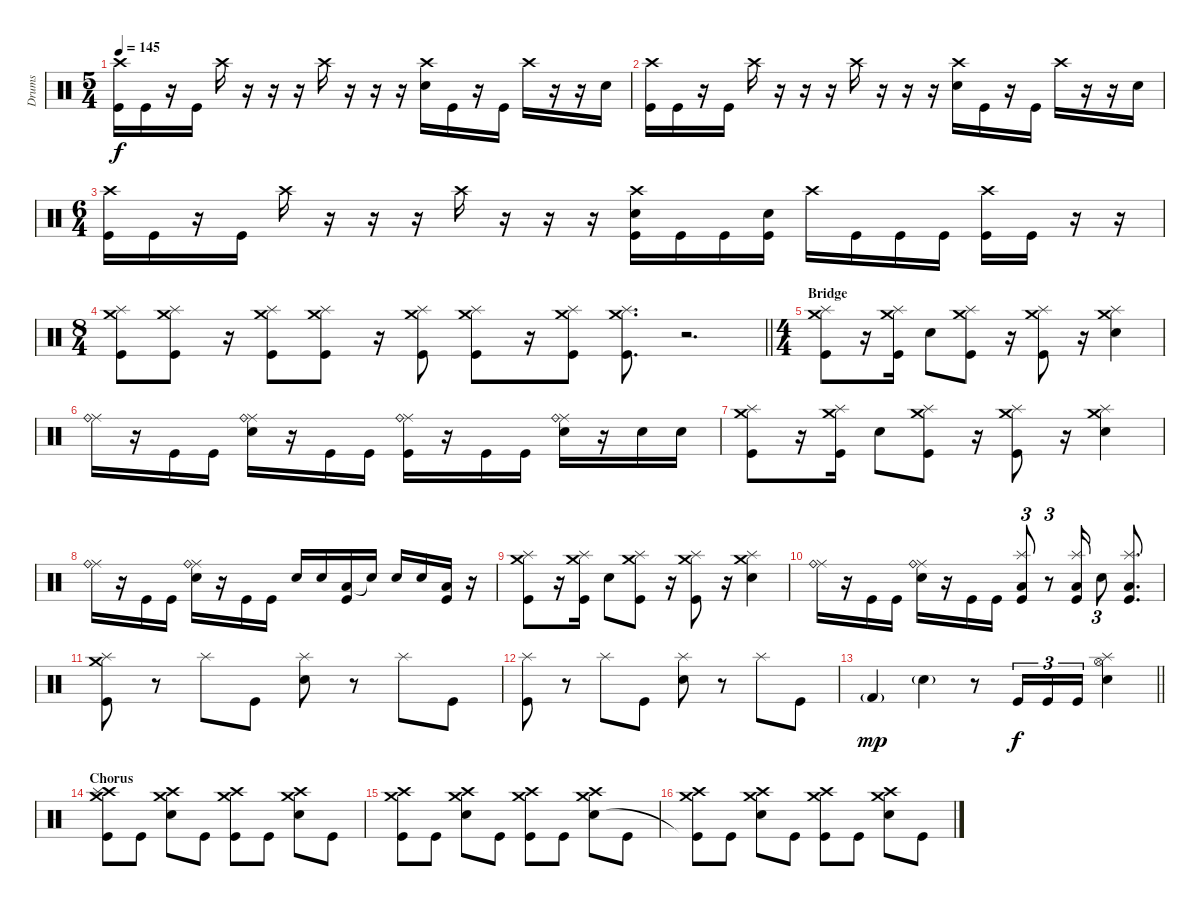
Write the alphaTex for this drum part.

\track ("Drums" "Drums") {instrument percussion}
\staff {score}
\articulation defaults
\ts (5 4)
\tempo 145
\clef neutral
\ks c
("Crash high (hit)" "Kick (hit)").16{dy f} "Kick (hit)".16 r.16 "Kick (hit)".16 "Crash high (hit)".16 r.16 r.16 r.16 "Crash high (hit)".16 r.16 r.16 r.16 ("Crash high (hit)" "Electric Snare (hit)").16 "Kick (hit)".16 r.16 "Kick (hit)".16 "Crash high (hit)".16 r.16 r.16 "Electric Snare (hit)".16 |
("Crash high (hit)" "Kick (hit)").16 "Kick (hit)".16 r.16 "Kick (hit)".16 "Crash high (hit)".16 r.16 r.16 r.16 "Crash high (hit)".16 r.16 r.16 r.16 ("Crash high (hit)" "Electric Snare (hit)").16 "Kick (hit)".16 r.16 "Kick (hit)".16 "Crash high (hit)".16 r.16 r.16 "Electric Snare (hit)".16 |
\ts (6 4)
("Crash high (hit)" "Kick (hit)").16 "Kick (hit)".16 r.16 "Kick (hit)".16 "Crash high (hit)".16 r.16 r.16 r.16 "Crash high (hit)".16 r.16 r.16 r.16 ("Crash high (hit)" "Kick (hit)" "Electric Snare (hit)").16 "Kick (hit)".16 "Kick (hit)".16 ("Kick (hit)" "Electric Snare (hit)").16 "Crash high (hit)".16 "Kick (hit)".16 "Kick (hit)".16 "Kick (hit)".16 ("Crash high (hit)" "Kick (hit)").16 "Kick (hit)".16 r.16 r.16 |
\ts (8 4)
\barLineRight lightlight
("Splash (hit)" "Crash medium (hit)" "Kick (hit)").8 ("Splash (hit)" "Crash medium (hit)" "Kick (hit)").8 r.16 ("Splash (hit)" "Crash medium (hit)" "Kick (hit)").8 ("Splash (hit)" "Crash medium (hit)" "Kick (hit)").8 r.16 ("Splash (hit)" "Crash medium (hit)" "Kick (hit)").8 ("Splash (hit)" "Crash medium (hit)" "Kick (hit)").8 r.16 ("Splash (hit)" "Crash medium (hit)" "Kick (hit)").8 ("Splash (hit)" "Crash medium (hit)" "Kick (hit)").8{d} r.2{d} |
\ts (4 4)
\section ("" "Bridge")
("Splash (hit)" "Crash medium (hit)" "Kick (hit)").8 r.16 ("Splash (hit)" "Crash medium (hit)" "Kick (hit)").16 "Electric Snare (hit)".8 ("Splash (hit)" "Crash medium (hit)" "Kick (hit)").8 r.16 ("Splash (hit)" "Crash medium (hit)" "Kick (hit)").8 r.16 ("Splash (hit)" "Crash medium (hit)" "Electric Snare (hit)").4 |
("Ride (middle)" "Ride (bell)").16 r.16 "Kick (hit)".16 "Kick (hit)".16 ("Ride (middle)" "Ride (bell)" "Electric Snare (hit)").16 r.16 "Kick (hit)".16 "Kick (hit)".16 ("Ride (middle)" "Ride (bell)" "Kick (hit)").16 r.16 "Kick (hit)".16 "Kick (hit)".16 ("Ride (middle)" "Ride (bell)" "Electric Snare (hit)").16 r.16 "Electric Snare (hit)".16 "Electric Snare (hit)".16 |
("Splash (hit)" "Crash medium (hit)" "Kick (hit)").8 r.16 ("Splash (hit)" "Crash medium (hit)" "Kick (hit)").16 "Electric Snare (hit)".8 ("Splash (hit)" "Crash medium (hit)" "Kick (hit)").8 r.16 ("Splash (hit)" "Crash medium (hit)" "Kick (hit)").8 r.16 ("Splash (hit)" "Crash medium (hit)" "Electric Snare (hit)").4 |
("Ride (middle)" "Ride (bell)").16 r.16 "Kick (hit)".16 "Kick (hit)".16 ("Ride (middle)" "Ride (bell)" "Electric Snare (hit)").16 r.16 "Kick (hit)".16 "Kick (hit)".16 "Electric Snare (hit)".16 "Electric Snare (hit)".16 ("Low Floor Tom (hit)" "Kick (hit)").16 "Electric Snare (hit)"{t}.16 "Electric Snare (hit)".16 "Electric Snare (hit)".16 ("Low Floor Tom (hit)" "Kick (hit)").16 r.16 |
("Splash (hit)" "Crash medium (hit)" "Kick (hit)").8 r.16 ("Splash (hit)" "Crash medium (hit)" "Kick (hit)").16 "Electric Snare (hit)".8 ("Splash (hit)" "Crash medium (hit)" "Kick (hit)").8 r.16 ("Splash (hit)" "Crash medium (hit)" "Kick (hit)").8 r.16 ("Splash (hit)" "Crash medium (hit)" "Electric Snare (hit)").4 |
("Ride (middle)" "Ride (bell)").16 r.16 "Kick (hit)".16 "Kick (hit)".16 ("Ride (middle)" "Ride (bell)" "Electric Snare (hit)").16 r.16 "Kick (hit)".16 "Kick (hit)".16 ("Splash (hit)" "Kick (hit)" "Low Floor Tom (hit)").8{tu (3 2)} r.8{tu (3 2)} ("Splash (hit)" "Kick (hit)" "Low Floor Tom (hit)").16 "Electric Snare (hit)".8{tu (3 2)} ("Splash (hit)" "Kick (hit)" "Low Floor Tom (hit)").8{d} |
("Crash medium (hit)" "Splash (hit)" "Kick (hit)").8 r.8 "Splash (hit)".8 "Kick (hit)".8 ("Splash (hit)" "Electric Snare (hit)").8 r.8 "Splash (hit)".8 "Kick (hit)".8 |
("Splash (hit)" "Kick (hit)").8 r.8 "Splash (hit)".8 "Kick (hit)".8 ("Splash (hit)" "Electric Snare (hit)").8 r.8 "Splash (hit)".8 "Kick (hit)".8 |
\barLineRight lightlight "Kick (hit) 2"{g}.4{dy mp} "Electric Snare (hit)"{g}.4
r.8 "Kick (hit)".16{tu (3 2) dy f} "Kick (hit)".16{tu (3 2)} "Kick (hit)".16{tu (3 2)} ("Hi-Hat (open)" "Splash (hit)" "Electric Snare (hit)").4 |
\section ("" "Chorus")
("Crash medium (hit)" "Crash high (hit)" "Splash (hit)" "Kick (hit)").8 "Kick (hit)".8 ("Crash medium (hit)" "Crash high (hit)" "Electric Snare (hit)").8 "Kick (hit)".8 ("Crash medium (hit)" "Crash high (hit)" "Kick (hit)").8 "Kick (hit)".8 ("Crash medium (hit)" "Crash high (hit)" "Electric Snare (hit)").8 "Kick (hit)".8 |
("Crash medium (hit)" "Crash high (hit)" "Kick (hit)").8 "Kick (hit)".8 ("Crash medium (hit)" "Crash high (hit)" "Electric Snare (hit)").8 "Kick (hit)".8 ("Crash medium (hit)" "Crash high (hit)" "Kick (hit)").8 "Kick (hit)".8 ("Crash medium (hit)" "Crash high (hit)" "Electric Snare (hit)").8 "Kick (hit)".8 |
("Crash medium (hit)" "Crash high (hit)" "Kick (hit)"{t}).8 "Kick (hit)".8 ("Crash medium (hit)" "Crash high (hit)" "Electric Snare (hit)").8 "Kick (hit)".8 ("Crash medium (hit)" "Crash high (hit)" "Kick (hit)").8 "Kick (hit)".8 ("Crash medium (hit)" "Crash high (hit)" "Electric Snare (hit)").8 "Kick (hit)".8
